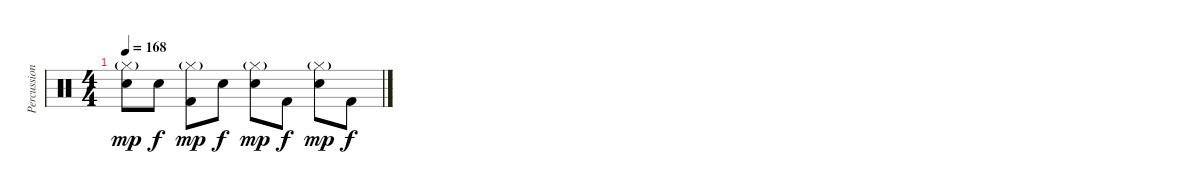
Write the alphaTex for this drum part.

\track ("Percussion" "Percussion") {instrument percussion}
\staff {score}
\articulation defaults
\ts (4 4)
\tempo 168
\clef neutral
\ks c
("Hi-Hat (closed)"{g} "Hand Clap (hit)").8{dy mp} "Hand Clap (hit)".8{dy f} ("Hi-Hat (closed)"{g} "Kick (hit) 2").8{dy mp} "Hand Clap (hit)".8{dy f} ("Hi-Hat (closed)"{g} "Hand Clap (hit)").8{dy mp} "Kick (hit) 2".8{dy f} ("Hi-Hat (closed)"{g} "Hand Clap (hit)").8{dy mp} "Kick (hit) 2".8{dy f}
